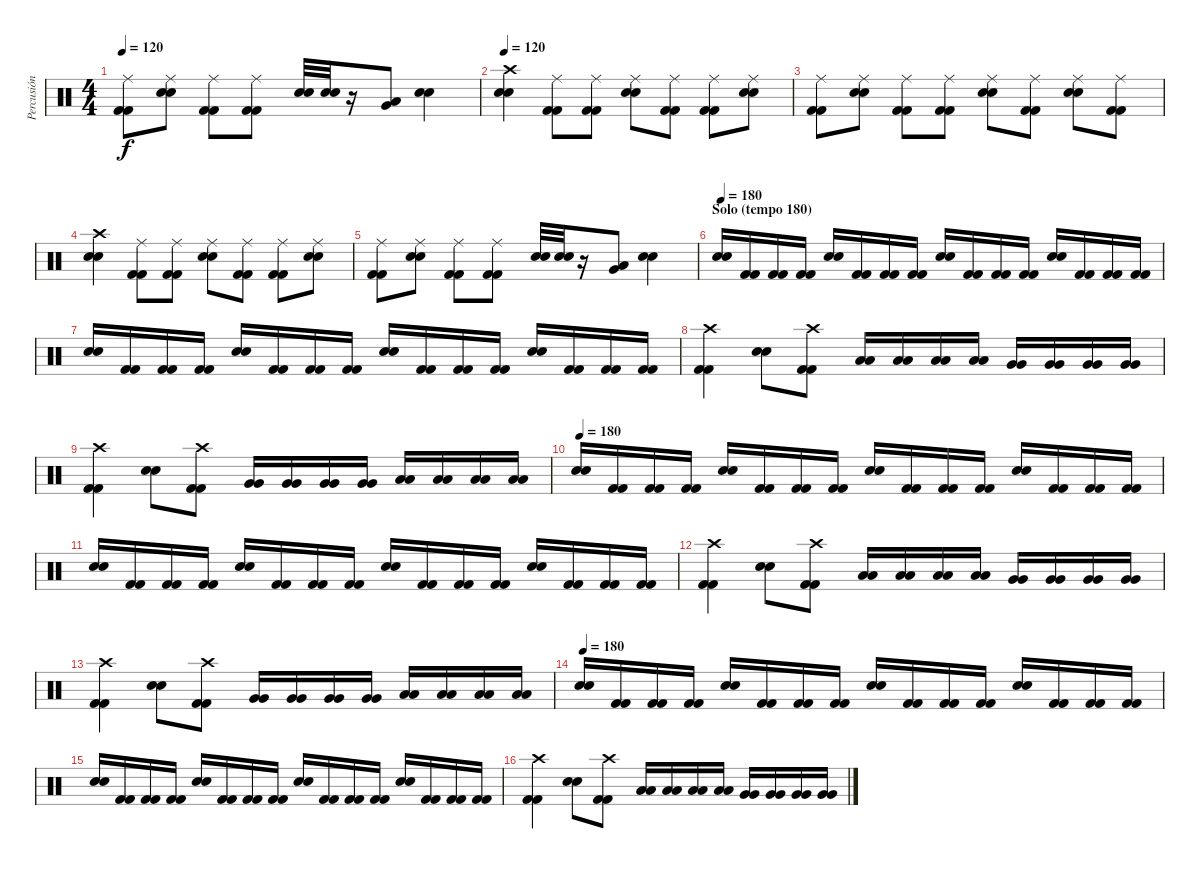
\track ("Percusión" "Percusión") {instrument percussion}
\staff {score}
\articulation defaults
\ts (4 4)
\tempo 120
\clef neutral
\ks c
("Ride (middle)" "Kick (hit) 2" "Kick (hit) 2").8{dy f} ("Ride (middle)" "Snare (hit) 2" "Snare (hit) 2").8 ("Ride (middle)" "Kick (hit) 2" "Kick (hit) 2").8 ("Ride (middle)" "Kick (hit) 2" "Kick (hit) 2").8 ("Electric Snare (hit)" "Electric Snare (hit)").32 ("Electric Snare (hit)" "Electric Snare (hit)").32 r.16 ("Very Low Tom (hit)" "Low Floor Tom (hit)").8 ("Snare (hit) 2" "Snare (hit) 2").4 |
\tempo 120
("Crash high (hit)" "Snare (hit) 2" "Snare (hit) 2").4 ("Ride (middle)" "Kick (hit) 2" "Kick (hit) 2").8 ("Ride (middle)" "Kick (hit) 2" "Kick (hit) 2").8 ("Ride (middle)" "Snare (hit) 2" "Snare (hit) 2").8 ("Ride (middle)" "Kick (hit) 2" "Kick (hit) 2").8 ("Ride (middle)" "Kick (hit) 2" "Kick (hit) 2").8 ("Ride (middle)" "Snare (hit) 2" "Snare (hit) 2").8 |
("Ride (middle)" "Kick (hit) 2" "Kick (hit) 2").8 ("Ride (middle)" "Snare (hit) 2" "Snare (hit) 2").8 ("Ride (middle)" "Kick (hit) 2" "Kick (hit) 2").8 ("Ride (middle)" "Kick (hit) 2" "Kick (hit) 2").8 ("Ride (middle)" "Snare (hit) 2" "Snare (hit) 2").8 ("Ride (middle)" "Kick (hit) 2" "Kick (hit) 2").8 ("Ride (middle)" "Snare (hit) 2" "Snare (hit) 2").8 ("Ride (middle)" "Kick (hit) 2" "Kick (hit) 2").8 |
("Crash high (hit)" "Snare (hit) 2" "Snare (hit) 2").4 ("Ride (middle)" "Kick (hit) 2" "Kick (hit) 2").8 ("Ride (middle)" "Kick (hit) 2" "Kick (hit) 2").8 ("Ride (middle)" "Snare (hit) 2" "Snare (hit) 2").8 ("Ride (middle)" "Kick (hit) 2" "Kick (hit) 2").8 ("Ride (middle)" "Kick (hit) 2" "Kick (hit) 2").8 ("Ride (middle)" "Snare (hit) 2" "Snare (hit) 2").8 |
("Ride (middle)" "Kick (hit) 2" "Kick (hit) 2").8 ("Ride (middle)" "Snare (hit) 2" "Snare (hit) 2").8 ("Ride (middle)" "Kick (hit) 2" "Kick (hit) 2").8 ("Ride (middle)" "Kick (hit) 2" "Kick (hit) 2").8 ("Electric Snare (hit)" "Electric Snare (hit)").32 ("Electric Snare (hit)" "Electric Snare (hit)").32 r.16 ("Very Low Tom (hit)" "Low Floor Tom (hit)").8 ("Snare (hit) 2" "Snare (hit) 2").4 |
\section ("" "Solo (tempo 180)")
\tempo 180
("Snare (hit) 2" "Snare (hit) 2").16 ("Kick (hit) 2" "Kick (hit) 2").16 ("Kick (hit) 2" "Kick (hit) 2").16 ("Kick (hit) 2" "Kick (hit) 2").16 ("Snare (hit) 2" "Snare (hit) 2").16 ("Kick (hit) 2" "Kick (hit) 2").16 ("Kick (hit) 2" "Kick (hit) 2").16 ("Kick (hit) 2" "Kick (hit) 2").16 ("Snare (hit) 2" "Snare (hit) 2").16 ("Kick (hit) 2" "Kick (hit) 2").16 ("Kick (hit) 2" "Kick (hit) 2").16 ("Kick (hit) 2" "Kick (hit) 2").16 ("Snare (hit) 2" "Snare (hit) 2").16 ("Kick (hit) 2" "Kick (hit) 2").16 ("Kick (hit) 2" "Kick (hit) 2").16 ("Kick (hit) 2" "Kick (hit) 2").16 |
("Snare (hit) 2" "Snare (hit) 2").16 ("Kick (hit) 2" "Kick (hit) 2").16 ("Kick (hit) 2" "Kick (hit) 2").16 ("Kick (hit) 2" "Kick (hit) 2").16 ("Snare (hit) 2" "Snare (hit) 2").16 ("Kick (hit) 2" "Kick (hit) 2").16 ("Kick (hit) 2" "Kick (hit) 2").16 ("Kick (hit) 2" "Kick (hit) 2").16 ("Snare (hit) 2" "Snare (hit) 2").16 ("Kick (hit) 2" "Kick (hit) 2").16 ("Kick (hit) 2" "Kick (hit) 2").16 ("Kick (hit) 2" "Kick (hit) 2").16 ("Snare (hit) 2" "Snare (hit) 2").16 ("Kick (hit) 2" "Kick (hit) 2").16 ("Kick (hit) 2" "Kick (hit) 2").16 ("Kick (hit) 2" "Kick (hit) 2").16 |
("Crash high (hit)" "Kick (hit) 2" "Kick (hit) 2").4 ("Snare (hit) 2" "Snare (hit) 2").8 ("Crash high (hit)" "Kick (hit) 2" "Kick (hit) 2").8 ("Low Tom (hit)" "Low Tom (hit)").16 ("Low Tom (hit)" "Low Tom (hit)").16 ("Low Tom (hit)" "Low Tom (hit)").16 ("Low Tom (hit)" "Low Tom (hit)").16 ("Very Low Tom (hit)" "Very Low Tom (hit)").16 ("Very Low Tom (hit)" "Very Low Tom (hit)").16 ("Very Low Tom (hit)" "Very Low Tom (hit)").16 ("Very Low Tom (hit)" "Very Low Tom (hit)").16 |
("Crash high (hit)" "Kick (hit) 2" "Kick (hit) 2").4 ("Snare (hit) 2" "Snare (hit) 2").8 ("Crash high (hit)" "Kick (hit) 2" "Kick (hit) 2").8 ("Very Low Tom (hit)" "Very Low Tom (hit)").16 ("Very Low Tom (hit)" "Very Low Tom (hit)").16 ("Very Low Tom (hit)" "Very Low Tom (hit)").16 ("Very Low Tom (hit)" "Very Low Tom (hit)").16 ("Low Floor Tom (hit)" "Low Floor Tom (hit)").16 ("Low Floor Tom (hit)" "Low Floor Tom (hit)").16 ("Low Floor Tom (hit)" "Low Floor Tom (hit)").16 ("Low Floor Tom (hit)" "Low Floor Tom (hit)").16 |
\tempo 180
("Snare (hit) 2" "Snare (hit) 2").16 ("Kick (hit) 2" "Kick (hit) 2").16 ("Kick (hit) 2" "Kick (hit) 2").16 ("Kick (hit) 2" "Kick (hit) 2").16 ("Snare (hit) 2" "Snare (hit) 2").16 ("Kick (hit) 2" "Kick (hit) 2").16 ("Kick (hit) 2" "Kick (hit) 2").16 ("Kick (hit) 2" "Kick (hit) 2").16 ("Snare (hit) 2" "Snare (hit) 2").16 ("Kick (hit) 2" "Kick (hit) 2").16 ("Kick (hit) 2" "Kick (hit) 2").16 ("Kick (hit) 2" "Kick (hit) 2").16 ("Snare (hit) 2" "Snare (hit) 2").16 ("Kick (hit) 2" "Kick (hit) 2").16 ("Kick (hit) 2" "Kick (hit) 2").16 ("Kick (hit) 2" "Kick (hit) 2").16 |
("Snare (hit) 2" "Snare (hit) 2").16 ("Kick (hit) 2" "Kick (hit) 2").16 ("Kick (hit) 2" "Kick (hit) 2").16 ("Kick (hit) 2" "Kick (hit) 2").16 ("Snare (hit) 2" "Snare (hit) 2").16 ("Kick (hit) 2" "Kick (hit) 2").16 ("Kick (hit) 2" "Kick (hit) 2").16 ("Kick (hit) 2" "Kick (hit) 2").16 ("Snare (hit) 2" "Snare (hit) 2").16 ("Kick (hit) 2" "Kick (hit) 2").16 ("Kick (hit) 2" "Kick (hit) 2").16 ("Kick (hit) 2" "Kick (hit) 2").16 ("Snare (hit) 2" "Snare (hit) 2").16 ("Kick (hit) 2" "Kick (hit) 2").16 ("Kick (hit) 2" "Kick (hit) 2").16 ("Kick (hit) 2" "Kick (hit) 2").16 |
("Crash high (hit)" "Kick (hit) 2" "Kick (hit) 2").4 ("Snare (hit) 2" "Snare (hit) 2").8 ("Crash high (hit)" "Kick (hit) 2" "Kick (hit) 2").8 ("Low Tom (hit)" "Low Tom (hit)").16 ("Low Tom (hit)" "Low Tom (hit)").16 ("Low Tom (hit)" "Low Tom (hit)").16 ("Low Tom (hit)" "Low Tom (hit)").16 ("Very Low Tom (hit)" "Very Low Tom (hit)").16 ("Very Low Tom (hit)" "Very Low Tom (hit)").16 ("Very Low Tom (hit)" "Very Low Tom (hit)").16 ("Very Low Tom (hit)" "Very Low Tom (hit)").16 |
("Crash high (hit)" "Kick (hit) 2" "Kick (hit) 2").4 ("Snare (hit) 2" "Snare (hit) 2").8 ("Crash high (hit)" "Kick (hit) 2" "Kick (hit) 2").8 ("Very Low Tom (hit)" "Very Low Tom (hit)").16 ("Very Low Tom (hit)" "Very Low Tom (hit)").16 ("Very Low Tom (hit)" "Very Low Tom (hit)").16 ("Very Low Tom (hit)" "Very Low Tom (hit)").16 ("Low Floor Tom (hit)" "Low Floor Tom (hit)").16 ("Low Floor Tom (hit)" "Low Floor Tom (hit)").16 ("Low Floor Tom (hit)" "Low Floor Tom (hit)").16 ("Low Floor Tom (hit)" "Low Floor Tom (hit)").16 |
\tempo 180
("Snare (hit) 2" "Snare (hit) 2").16 ("Kick (hit) 2" "Kick (hit) 2").16 ("Kick (hit) 2" "Kick (hit) 2").16 ("Kick (hit) 2" "Kick (hit) 2").16 ("Snare (hit) 2" "Snare (hit) 2").16 ("Kick (hit) 2" "Kick (hit) 2").16 ("Kick (hit) 2" "Kick (hit) 2").16 ("Kick (hit) 2" "Kick (hit) 2").16 ("Snare (hit) 2" "Snare (hit) 2").16 ("Kick (hit) 2" "Kick (hit) 2").16 ("Kick (hit) 2" "Kick (hit) 2").16 ("Kick (hit) 2" "Kick (hit) 2").16 ("Snare (hit) 2" "Snare (hit) 2").16 ("Kick (hit) 2" "Kick (hit) 2").16 ("Kick (hit) 2" "Kick (hit) 2").16 ("Kick (hit) 2" "Kick (hit) 2").16 |
("Snare (hit) 2" "Snare (hit) 2").16 ("Kick (hit) 2" "Kick (hit) 2").16 ("Kick (hit) 2" "Kick (hit) 2").16 ("Kick (hit) 2" "Kick (hit) 2").16 ("Snare (hit) 2" "Snare (hit) 2").16 ("Kick (hit) 2" "Kick (hit) 2").16 ("Kick (hit) 2" "Kick (hit) 2").16 ("Kick (hit) 2" "Kick (hit) 2").16 ("Snare (hit) 2" "Snare (hit) 2").16 ("Kick (hit) 2" "Kick (hit) 2").16 ("Kick (hit) 2" "Kick (hit) 2").16 ("Kick (hit) 2" "Kick (hit) 2").16 ("Snare (hit) 2" "Snare (hit) 2").16 ("Kick (hit) 2" "Kick (hit) 2").16 ("Kick (hit) 2" "Kick (hit) 2").16 ("Kick (hit) 2" "Kick (hit) 2").16 |
("Crash high (hit)" "Kick (hit) 2" "Kick (hit) 2").4 ("Snare (hit) 2" "Snare (hit) 2").8 ("Crash high (hit)" "Kick (hit) 2" "Kick (hit) 2").8 ("Low Tom (hit)" "Low Tom (hit)").16 ("Low Tom (hit)" "Low Tom (hit)").16 ("Low Tom (hit)" "Low Tom (hit)").16 ("Low Tom (hit)" "Low Tom (hit)").16 ("Very Low Tom (hit)" "Very Low Tom (hit)").16 ("Very Low Tom (hit)" "Very Low Tom (hit)").16 ("Very Low Tom (hit)" "Very Low Tom (hit)").16 ("Very Low Tom (hit)" "Very Low Tom (hit)").16
